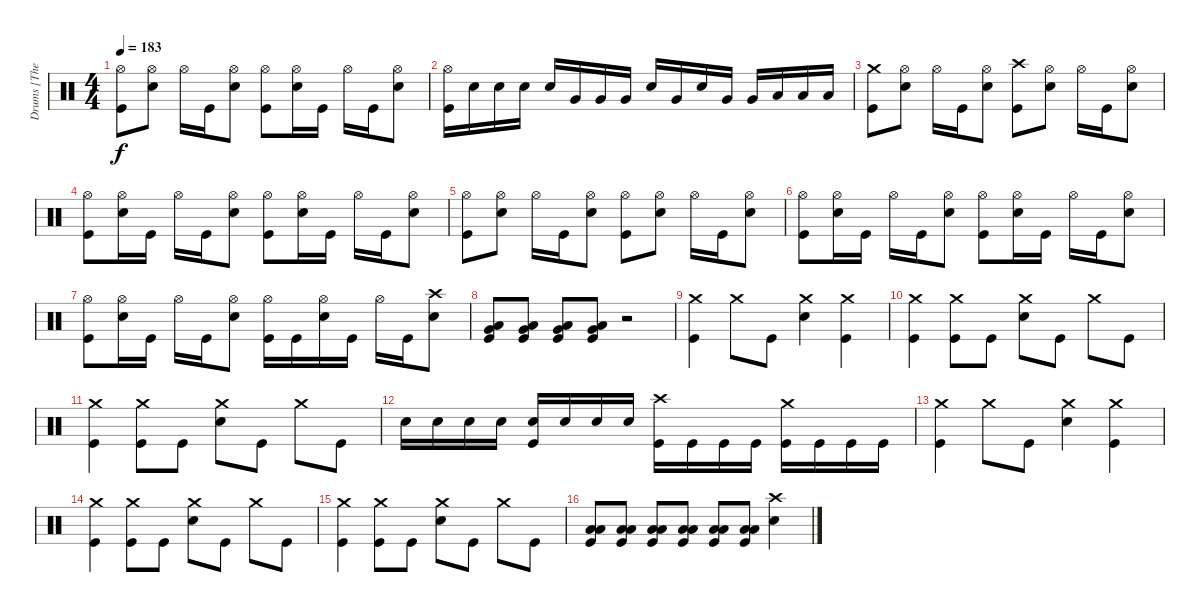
\track ("Drums [The Rev]" "Drums [The") {instrument percussion}
\staff {score}
\articulation defaults
\ts (4 4)
\tempo 183
\clef neutral
\ks c
("Hi-Hat (open)" "Kick (hit)").8{dy f} ("Hi-Hat (open)" "Snare (hit) 2").8 "Hi-Hat (open)".16 "Kick (hit)".16 ("Hi-Hat (open)" "Snare (hit) 2").8 ("Hi-Hat (open)" "Kick (hit)").8 ("Hi-Hat (open)" "Snare (hit) 2").16 "Kick (hit)".16 "Hi-Hat (open)".16 "Kick (hit)".16 ("Hi-Hat (open)" "Snare (hit) 2").8 |
("Hi-Hat (open)" "Kick (hit)").16 "Snare (hit) 2".16 "Snare (hit) 2".16 "Snare (hit) 2".16 "Snare (hit) 2".16 "Very Low Tom (hit)".16 "Very Low Tom (hit)".16 "Very Low Tom (hit)".16 "Snare (hit) 2".16 "Very Low Tom (hit)".16 "Snare (hit) 2".16 "Very Low Tom (hit)".16 "Very Low Tom (hit)".16 "Low Floor Tom (hit)".16 "Low Floor Tom (hit)".16 "Low Floor Tom (hit)".16 |
("Crash medium (hit)" "Kick (hit)").8 ("Hi-Hat (open)" "Snare (hit) 2").8 "Hi-Hat (open)".16 "Kick (hit)".16 ("Hi-Hat (open)" "Snare (hit) 2").8 ("Crash high (hit)" "Kick (hit)").8 ("Hi-Hat (open)" "Snare (hit) 2").8 "Hi-Hat (open)".16 "Kick (hit)".16 ("Hi-Hat (open)" "Snare (hit) 2").8 |
("Hi-Hat (open)" "Kick (hit)").8 ("Hi-Hat (open)" "Snare (hit) 2").16 "Kick (hit)".16 "Hi-Hat (open)".16 "Kick (hit)".16 ("Hi-Hat (open)" "Snare (hit) 2").8 ("Hi-Hat (open)" "Kick (hit)").8 ("Hi-Hat (open)" "Snare (hit) 2").16 "Kick (hit)".16 "Hi-Hat (open)".16 "Kick (hit)".16 ("Hi-Hat (open)" "Snare (hit) 2").8 |
("Hi-Hat (open)" "Kick (hit)").8 ("Hi-Hat (open)" "Snare (hit) 2").8 "Hi-Hat (open)".16 "Kick (hit)".16 ("Hi-Hat (open)" "Snare (hit) 2").8 ("Hi-Hat (open)" "Kick (hit)").8 ("Hi-Hat (open)" "Snare (hit) 2").8 "Hi-Hat (open)".16 "Kick (hit)".16 ("Hi-Hat (open)" "Snare (hit) 2").8 |
("Hi-Hat (open)" "Kick (hit)").8 ("Hi-Hat (open)" "Snare (hit) 2").16 "Kick (hit)".16 "Hi-Hat (open)".16 "Kick (hit)".16 ("Hi-Hat (open)" "Snare (hit) 2").8 ("Hi-Hat (open)" "Kick (hit)").8 ("Hi-Hat (open)" "Snare (hit) 2").16 "Kick (hit)".16 "Hi-Hat (open)".16 "Kick (hit)".16 ("Hi-Hat (open)" "Snare (hit) 2").8 |
("Hi-Hat (open)" "Kick (hit)").8 ("Hi-Hat (open)" "Snare (hit) 2").16 "Kick (hit)".16 "Hi-Hat (open)".16 "Kick (hit)".16 ("Hi-Hat (open)" "Snare (hit) 2").8 ("Hi-Hat (open)" "Kick (hit)").16 "Kick (hit)".16 ("Hi-Hat (open)" "Snare (hit) 2").16 "Kick (hit)".16 "Hi-Hat (open)".16 "Kick (hit)".16 ("Crash high (hit)" "Snare (hit) 2").8 |
("Low Floor Tom (hit)" "Very Low Tom (hit)" "Kick (hit)").8 ("Low Floor Tom (hit)" "Very Low Tom (hit)" "Kick (hit)").8 ("Low Floor Tom (hit)" "Very Low Tom (hit)" "Kick (hit)").8 ("Low Floor Tom (hit)" "Very Low Tom (hit)" "Kick (hit)").8 r.2 |
("Crash medium (hit)" "Kick (hit)").4 "Crash medium (hit)".8 "Kick (hit)".8 ("Crash medium (hit)" "Snare (hit) 2").4 ("Crash medium (hit)" "Kick (hit)").4 |
("Crash medium (hit)" "Kick (hit)").4 ("Crash medium (hit)" "Kick (hit)").8 "Kick (hit)".8 ("Crash medium (hit)" "Snare (hit) 2").8 "Kick (hit)".8 "Crash medium (hit)".8 "Kick (hit)".8 |
("Crash medium (hit)" "Kick (hit)").4 ("Crash medium (hit)" "Kick (hit)").8 "Kick (hit)".8 ("Crash medium (hit)" "Snare (hit) 2").8 "Kick (hit)".8 "Crash medium (hit)".8 "Kick (hit)".8 |
"Snare (hit) 2".16 "Snare (hit) 2".16 "Snare (hit) 2".16 "Snare (hit) 2".16 ("Snare (hit) 2" "Kick (hit)").16 "Snare (hit) 2".16 "Snare (hit) 2".16 "Snare (hit) 2".16 ("Crash high (hit)" "Kick (hit)").16 "Kick (hit)".16 "Kick (hit)".16 "Kick (hit)".16 ("Crash medium (hit)" "Kick (hit)").16 "Kick (hit)".16 "Kick (hit)".16 "Kick (hit)".16 |
("Crash medium (hit)" "Kick (hit)").4 "Crash medium (hit)".8 "Kick (hit)".8 ("Crash medium (hit)" "Snare (hit) 2").4 ("Crash medium (hit)" "Kick (hit)").4 |
("Crash medium (hit)" "Kick (hit)").4 ("Crash medium (hit)" "Kick (hit)").8 "Kick (hit)".8 ("Crash medium (hit)" "Snare (hit) 2").8 "Kick (hit)".8 "Crash medium (hit)".8 "Kick (hit)".8 |
("Crash medium (hit)" "Kick (hit)").4 ("Crash medium (hit)" "Kick (hit)").8 "Kick (hit)".8 ("Crash medium (hit)" "Snare (hit) 2").8 "Kick (hit)".8 "Crash medium (hit)".8 "Kick (hit)".8 |
("Low Floor Tom (hit)" "Low Floor Tom (hit)" "Kick (hit)").8 ("Low Floor Tom (hit)" "Low Floor Tom (hit)" "Kick (hit)").8 ("Low Floor Tom (hit)" "Low Floor Tom (hit)" "Kick (hit)").8 ("Low Floor Tom (hit)" "Low Floor Tom (hit)" "Kick (hit)").8 ("Low Floor Tom (hit)" "Low Floor Tom (hit)" "Kick (hit)").8 ("Low Floor Tom (hit)" "Low Floor Tom (hit)" "Kick (hit)").8 ("Crash high (hit)" "Snare (hit) 2").4
